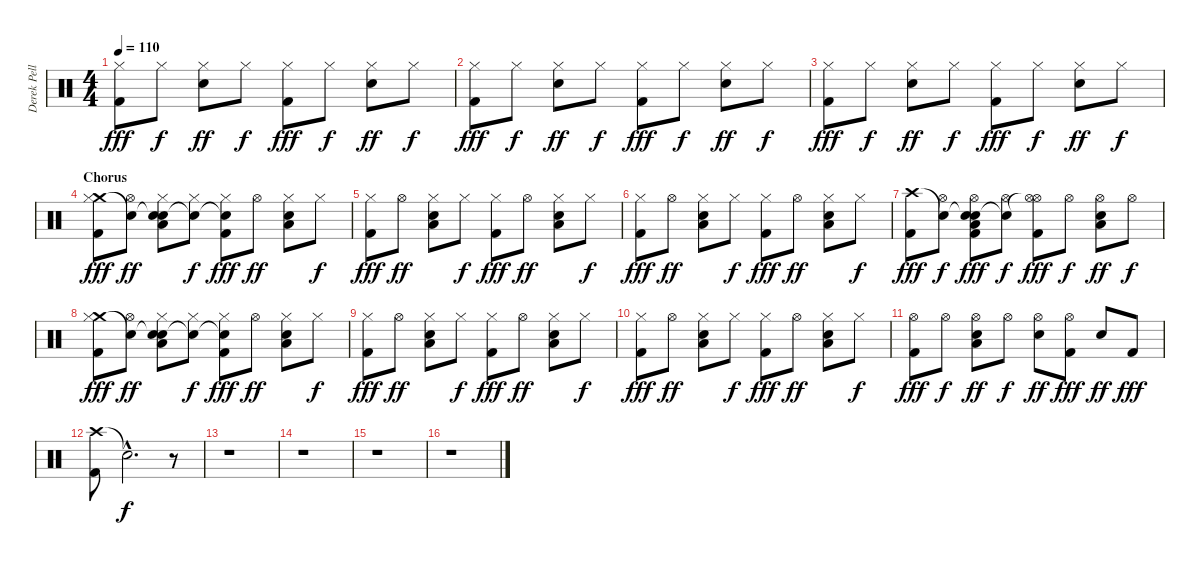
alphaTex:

\track ("Derek Pellici" "Derek Pell") {instrument percussion}
\staff {score}
\articulation defaults
\ts (4 4)
\tempo 110
\clef neutral
\ks c
("Hi-Hat (closed)" "Kick (hit) 2").8{dy fff} "Hi-Hat (closed)".8{dy f} ("Hi-Hat (closed)" "Electric Snare (hit)").8{dy ff} "Hi-Hat (closed)".8{dy f} ("Hi-Hat (closed)" "Kick (hit) 2").8{dy fff} "Hi-Hat (closed)".8{dy f} ("Hi-Hat (closed)" "Electric Snare (hit)").8{dy ff} "Hi-Hat (closed)".8{dy f} |
("Hi-Hat (closed)" "Kick (hit) 2").8{dy fff} "Hi-Hat (closed)".8{dy f} ("Hi-Hat (closed)" "Electric Snare (hit)").8{dy ff} "Hi-Hat (closed)".8{dy f} ("Hi-Hat (closed)" "Kick (hit) 2").8{dy fff} "Hi-Hat (closed)".8{dy f} ("Hi-Hat (closed)" "Electric Snare (hit)").8{dy ff} "Hi-Hat (closed)".8{dy f} |
("Hi-Hat (closed)" "Kick (hit) 2").8{dy fff} "Hi-Hat (closed)".8{dy f} ("Hi-Hat (closed)" "Electric Snare (hit)").8{dy ff} "Hi-Hat (closed)".8{dy f} ("Hi-Hat (closed)" "Kick (hit) 2").8{dy fff} "Hi-Hat (closed)".8{dy f} ("Hi-Hat (closed)" "Electric Snare (hit)").8{dy ff} "Hi-Hat (closed)".8{dy f} |
\section ("" "Chorus")
("Crash medium (hit)" "Hi-Hat (closed)" "Kick (hit) 2").8{dy fff} ("Snare (hit)"{t} "Hi-Hat (open)").8{dy ff} ("Snare (hit)"{t} "Hi-Hat (closed)" "Low Floor Tom (hit)" "Snare (hit) 2").8 ("Snare (hit)"{t} "Hi-Hat (closed)").8{dy f} ("Snare (hit)"{t} "Hi-Hat (closed)" "Kick (hit) 2").8{dy fff} "Hi-Hat (open)".8{dy ff} ("Hi-Hat (closed)" "Low Floor Tom (hit)" "Snare (hit) 2").8 "Hi-Hat (closed)".8{dy f} |
("Hi-Hat (closed)" "Kick (hit) 2").8{dy fff} "Hi-Hat (open)".8{dy ff} ("Hi-Hat (closed)" "Low Floor Tom (hit)" "Snare (hit) 2").8 "Hi-Hat (closed)".8{dy f} ("Hi-Hat (closed)" "Kick (hit) 2").8{dy fff} "Hi-Hat (open)".8{dy ff} ("Hi-Hat (closed)" "Low Floor Tom (hit)" "Snare (hit) 2").8 "Hi-Hat (closed)".8{dy f} |
("Hi-Hat (closed)" "Kick (hit) 2").8{dy fff} "Hi-Hat (open)".8{dy ff} ("Hi-Hat (closed)" "Low Floor Tom (hit)" "Snare (hit) 2").8 "Hi-Hat (closed)".8{dy f} ("Hi-Hat (closed)" "Kick (hit) 2").8{dy fff} "Hi-Hat (open)".8{dy ff} ("Hi-Hat (closed)" "Low Floor Tom (hit)" "Snare (hit) 2").8 "Hi-Hat (closed)".8{dy f} |
("Crash high (hit)" "Kick (hit) 2").8{dy fff} ("Snare (hit)"{t} "Hi-Hat (open)").8{dy f} ("Snare (hit) 2"{t} "Hi-Hat (open)" "Low Floor Tom (hit)" "Snare (hit) 2" "Kick (hit) 2").8{dy fff} ("Snare (hit)"{t} "Hi-Hat (open)").8{dy f} ("Hi-Hat (open)"{t} "Hi-Hat (open)" "Kick (hit) 2").8{dy fff} "Hi-Hat (open)".8{dy f} ("Hi-Hat (open)" "Low Floor Tom (hit)" "Snare (hit) 2").8{dy ff} "Hi-Hat (open)".8{dy f} |
("Crash medium (hit)" "Hi-Hat (closed)" "Kick (hit) 2").8{dy fff} ("Snare (hit)"{t} "Hi-Hat (open)").8{dy ff} ("Snare (hit)"{t} "Hi-Hat (closed)" "Low Floor Tom (hit)" "Snare (hit) 2").8 ("Snare (hit)"{t} "Hi-Hat (closed)").8{dy f} ("Snare (hit)"{t} "Hi-Hat (closed)" "Kick (hit) 2").8{dy fff} "Hi-Hat (open)".8{dy ff} ("Hi-Hat (closed)" "Low Floor Tom (hit)" "Snare (hit) 2").8 "Hi-Hat (closed)".8{dy f} |
("Hi-Hat (closed)" "Kick (hit) 2").8{dy fff} "Hi-Hat (open)".8{dy ff} ("Hi-Hat (closed)" "Low Floor Tom (hit)" "Snare (hit) 2").8 "Hi-Hat (closed)".8{dy f} ("Hi-Hat (closed)" "Kick (hit) 2").8{dy fff} "Hi-Hat (open)".8{dy ff} ("Hi-Hat (closed)" "Low Floor Tom (hit)" "Snare (hit) 2").8 "Hi-Hat (closed)".8{dy f} |
("Hi-Hat (closed)" "Kick (hit) 2").8{dy fff} "Hi-Hat (open)".8{dy ff} ("Hi-Hat (closed)" "Low Floor Tom (hit)" "Snare (hit) 2").8 "Hi-Hat (closed)".8{dy f} ("Hi-Hat (closed)" "Kick (hit) 2").8{dy fff} "Hi-Hat (open)".8{dy ff} ("Hi-Hat (closed)" "Low Floor Tom (hit)" "Snare (hit) 2").8 "Hi-Hat (closed)".8{dy f} |
("Hi-Hat (open)" "Kick (hit) 2").8{dy fff} "Hi-Hat (open)".8{dy f} ("Hi-Hat (open)" "Low Floor Tom (hit)" "Snare (hit) 2").8{dy ff} "Hi-Hat (open)".8{dy f} ("Hi-Hat (open)" "Snare (hit) 2").8{dy ff} ("Hi-Hat (open)" "Kick (hit) 2").8{dy fff} "Snare (hit) 2".8{dy ff} "Kick (hit) 2".8{dy fff} |
("Crash high (hit)" "Kick (hit) 2").8 "Snare (hit)"{hac t}.2{d dy f} r.8 |
r.1 |
r.1 |
r.1 |
r.1
